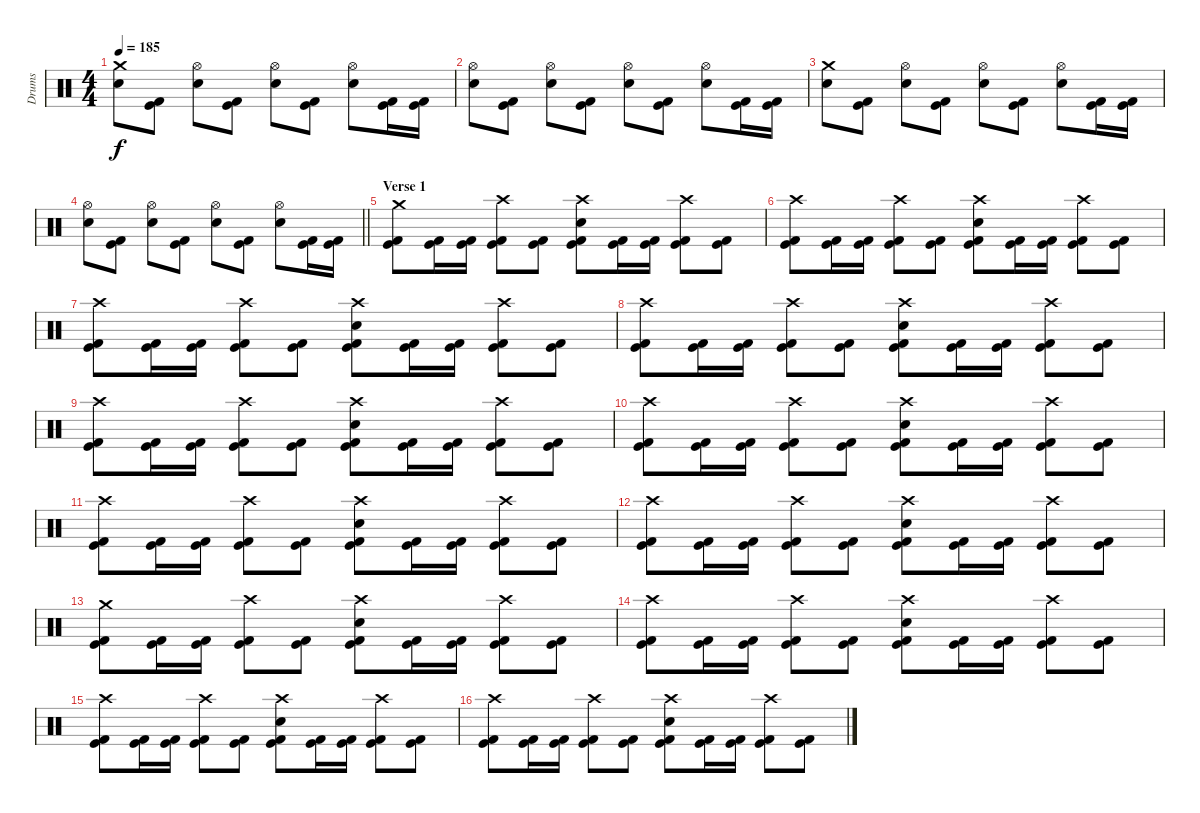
\track ("Drums" "Drums") {instrument percussion}
\staff {score}
\articulation defaults
\ts (4 4)
\tempo 185
\clef neutral
\ks c
("Crash medium (hit)" "Electric Snare (hit)").8{dy f} ("Kick (hit) 2" "Kick (hit)").8 ("Hi-Hat (open)" "Electric Snare (hit)").8 ("Kick (hit) 2" "Kick (hit)").8 ("Hi-Hat (open)" "Electric Snare (hit)").8 ("Kick (hit) 2" "Kick (hit)").8 ("Hi-Hat (open)" "Electric Snare (hit)").8 ("Kick (hit) 2" "Kick (hit)").16 ("Kick (hit) 2" "Kick (hit)").16 |
("Hi-Hat (open)" "Electric Snare (hit)").8 ("Kick (hit) 2" "Kick (hit)").8 ("Hi-Hat (open)" "Electric Snare (hit)").8 ("Kick (hit) 2" "Kick (hit)").8 ("Hi-Hat (open)" "Electric Snare (hit)").8 ("Kick (hit) 2" "Kick (hit)").8 ("Hi-Hat (open)" "Electric Snare (hit)").8 ("Kick (hit) 2" "Kick (hit)").16 ("Kick (hit) 2" "Kick (hit)").16 |
("Crash medium (hit)" "Electric Snare (hit)").8 ("Kick (hit) 2" "Kick (hit)").8 ("Hi-Hat (open)" "Electric Snare (hit)").8 ("Kick (hit) 2" "Kick (hit)").8 ("Hi-Hat (open)" "Electric Snare (hit)").8 ("Kick (hit) 2" "Kick (hit)").8 ("Hi-Hat (open)" "Electric Snare (hit)").8 ("Kick (hit) 2" "Kick (hit)").16 ("Kick (hit) 2" "Kick (hit)").16 |
\barLineRight lightlight
("Hi-Hat (open)" "Electric Snare (hit)").8 ("Kick (hit) 2" "Kick (hit)").8 ("Hi-Hat (open)" "Electric Snare (hit)").8 ("Kick (hit) 2" "Kick (hit)").8 ("Hi-Hat (open)" "Electric Snare (hit)").8 ("Kick (hit) 2" "Kick (hit)").8 ("Hi-Hat (open)" "Electric Snare (hit)").8 ("Kick (hit) 2" "Kick (hit)").16 ("Kick (hit) 2" "Kick (hit)").16 |
\section ("" "Verse 1")
("Crash medium (hit)" "Kick (hit) 2" "Kick (hit)").8 ("Kick (hit) 2" "Kick (hit)").16 ("Kick (hit) 2" "Kick (hit)").16 ("Crash high (hit)" "Kick (hit) 2" "Kick (hit)").8 ("Kick (hit) 2" "Kick (hit)").8 ("Crash high (hit)" "Electric Snare (hit)" "Kick (hit) 2" "Kick (hit)").8 ("Kick (hit) 2" "Kick (hit)").16 ("Kick (hit) 2" "Kick (hit)").16 ("Crash high (hit)" "Kick (hit) 2" "Kick (hit)").8 ("Kick (hit) 2" "Kick (hit)").8 |
("Crash high (hit)" "Kick (hit) 2" "Kick (hit)").8 ("Kick (hit) 2" "Kick (hit)").16 ("Kick (hit) 2" "Kick (hit)").16 ("Crash high (hit)" "Kick (hit) 2" "Kick (hit)").8 ("Kick (hit) 2" "Kick (hit)").8 ("Crash high (hit)" "Electric Snare (hit)" "Kick (hit) 2" "Kick (hit)").8 ("Kick (hit) 2" "Kick (hit)").16 ("Kick (hit) 2" "Kick (hit)").16 ("Crash high (hit)" "Kick (hit) 2" "Kick (hit)").8 ("Kick (hit) 2" "Kick (hit)").8 |
("Crash high (hit)" "Kick (hit) 2" "Kick (hit)").8 ("Kick (hit) 2" "Kick (hit)").16 ("Kick (hit) 2" "Kick (hit)").16 ("Crash high (hit)" "Kick (hit) 2" "Kick (hit)").8 ("Kick (hit) 2" "Kick (hit)").8 ("Crash high (hit)" "Electric Snare (hit)" "Kick (hit) 2" "Kick (hit)").8 ("Kick (hit) 2" "Kick (hit)").16 ("Kick (hit) 2" "Kick (hit)").16 ("Crash high (hit)" "Kick (hit) 2" "Kick (hit)").8 ("Kick (hit) 2" "Kick (hit)").8 |
("Crash high (hit)" "Kick (hit) 2" "Kick (hit)").8 ("Kick (hit) 2" "Kick (hit)").16 ("Kick (hit) 2" "Kick (hit)").16 ("Crash high (hit)" "Kick (hit) 2" "Kick (hit)").8 ("Kick (hit) 2" "Kick (hit)").8 ("Crash high (hit)" "Electric Snare (hit)" "Kick (hit) 2" "Kick (hit)").8 ("Kick (hit) 2" "Kick (hit)").16 ("Kick (hit) 2" "Kick (hit)").16 ("Crash high (hit)" "Kick (hit) 2" "Kick (hit)").8 ("Kick (hit) 2" "Kick (hit)").8 |
("Crash high (hit)" "Kick (hit) 2" "Kick (hit)").8 ("Kick (hit) 2" "Kick (hit)").16 ("Kick (hit) 2" "Kick (hit)").16 ("Crash high (hit)" "Kick (hit) 2" "Kick (hit)").8 ("Kick (hit) 2" "Kick (hit)").8 ("Crash high (hit)" "Electric Snare (hit)" "Kick (hit) 2" "Kick (hit)").8 ("Kick (hit) 2" "Kick (hit)").16 ("Kick (hit) 2" "Kick (hit)").16 ("Crash high (hit)" "Kick (hit) 2" "Kick (hit)").8 ("Kick (hit) 2" "Kick (hit)").8 |
("Crash high (hit)" "Kick (hit) 2" "Kick (hit)").8 ("Kick (hit) 2" "Kick (hit)").16 ("Kick (hit) 2" "Kick (hit)").16 ("Crash high (hit)" "Kick (hit) 2" "Kick (hit)").8 ("Kick (hit) 2" "Kick (hit)").8 ("Crash high (hit)" "Electric Snare (hit)" "Kick (hit) 2" "Kick (hit)").8 ("Kick (hit) 2" "Kick (hit)").16 ("Kick (hit) 2" "Kick (hit)").16 ("Crash high (hit)" "Kick (hit) 2" "Kick (hit)").8 ("Kick (hit) 2" "Kick (hit)").8 |
("Crash high (hit)" "Kick (hit) 2" "Kick (hit)").8 ("Kick (hit) 2" "Kick (hit)").16 ("Kick (hit) 2" "Kick (hit)").16 ("Crash high (hit)" "Kick (hit) 2" "Kick (hit)").8 ("Kick (hit) 2" "Kick (hit)").8 ("Crash high (hit)" "Electric Snare (hit)" "Kick (hit) 2" "Kick (hit)").8 ("Kick (hit) 2" "Kick (hit)").16 ("Kick (hit) 2" "Kick (hit)").16 ("Crash high (hit)" "Kick (hit) 2" "Kick (hit)").8 ("Kick (hit) 2" "Kick (hit)").8 |
("Crash high (hit)" "Kick (hit) 2" "Kick (hit)").8 ("Kick (hit) 2" "Kick (hit)").16 ("Kick (hit) 2" "Kick (hit)").16 ("Crash high (hit)" "Kick (hit) 2" "Kick (hit)").8 ("Kick (hit) 2" "Kick (hit)").8 ("Crash high (hit)" "Electric Snare (hit)" "Kick (hit) 2" "Kick (hit)").8 ("Kick (hit) 2" "Kick (hit)").16 ("Kick (hit) 2" "Kick (hit)").16 ("Crash high (hit)" "Kick (hit) 2" "Kick (hit)").8 ("Kick (hit) 2" "Kick (hit)").8 |
("Crash medium (hit)" "Kick (hit) 2" "Kick (hit)").8 ("Kick (hit) 2" "Kick (hit)").16 ("Kick (hit) 2" "Kick (hit)").16 ("Crash high (hit)" "Kick (hit) 2" "Kick (hit)").8 ("Kick (hit) 2" "Kick (hit)").8 ("Crash high (hit)" "Electric Snare (hit)" "Kick (hit) 2" "Kick (hit)").8 ("Kick (hit) 2" "Kick (hit)").16 ("Kick (hit) 2" "Kick (hit)").16 ("Crash high (hit)" "Kick (hit) 2" "Kick (hit)").8 ("Kick (hit) 2" "Kick (hit)").8 |
("Crash high (hit)" "Kick (hit) 2" "Kick (hit)").8 ("Kick (hit) 2" "Kick (hit)").16 ("Kick (hit) 2" "Kick (hit)").16 ("Crash high (hit)" "Kick (hit) 2" "Kick (hit)").8 ("Kick (hit) 2" "Kick (hit)").8 ("Crash high (hit)" "Electric Snare (hit)" "Kick (hit) 2" "Kick (hit)").8 ("Kick (hit) 2" "Kick (hit)").16 ("Kick (hit) 2" "Kick (hit)").16 ("Crash high (hit)" "Kick (hit) 2" "Kick (hit)").8 ("Kick (hit) 2" "Kick (hit)").8 |
("Crash high (hit)" "Kick (hit) 2" "Kick (hit)").8 ("Kick (hit) 2" "Kick (hit)").16 ("Kick (hit) 2" "Kick (hit)").16 ("Crash high (hit)" "Kick (hit) 2" "Kick (hit)").8 ("Kick (hit) 2" "Kick (hit)").8 ("Crash high (hit)" "Electric Snare (hit)" "Kick (hit) 2" "Kick (hit)").8 ("Kick (hit) 2" "Kick (hit)").16 ("Kick (hit) 2" "Kick (hit)").16 ("Crash high (hit)" "Kick (hit) 2" "Kick (hit)").8 ("Kick (hit) 2" "Kick (hit)").8 |
("Crash high (hit)" "Kick (hit) 2" "Kick (hit)").8 ("Kick (hit) 2" "Kick (hit)").16 ("Kick (hit) 2" "Kick (hit)").16 ("Crash high (hit)" "Kick (hit) 2" "Kick (hit)").8 ("Kick (hit) 2" "Kick (hit)").8 ("Crash high (hit)" "Electric Snare (hit)" "Kick (hit) 2" "Kick (hit)").8 ("Kick (hit) 2" "Kick (hit)").16 ("Kick (hit) 2" "Kick (hit)").16 ("Crash high (hit)" "Kick (hit) 2" "Kick (hit)").8 ("Kick (hit) 2" "Kick (hit)").8
